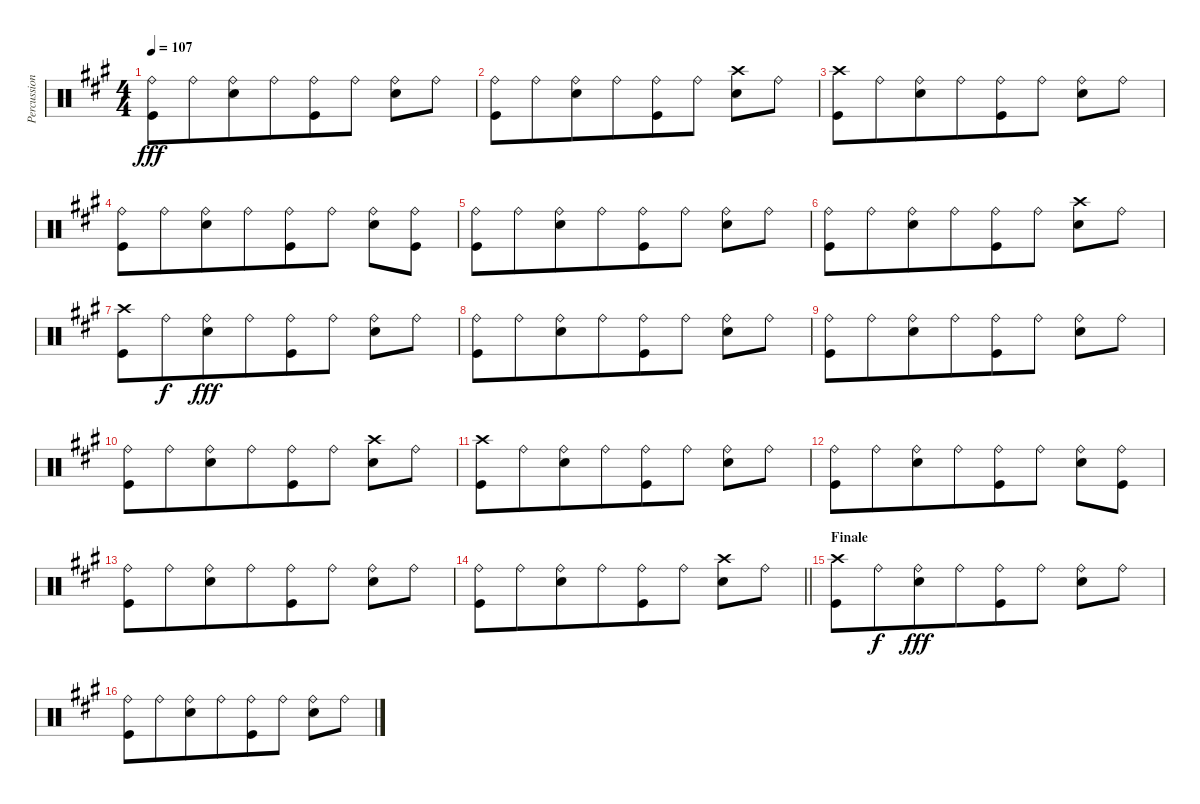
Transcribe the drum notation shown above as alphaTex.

\track ("Percussion" "Percussion") {instrument percussion}
\staff {score}
\articulation defaults
\ts (4 4)
\tempo 107
\clef neutral
\ks a
("Kick (hit)" "Ride (bell)").8{dy fff} "Ride (bell)".8{beam merge} ("Electric Snare (hit)" "Ride (bell)").8{beam merge} "Ride (bell)".8{beam merge} ("Ride (bell)" "Kick (hit)").8{beam merge} "Ride (bell)".8 ("Ride (bell)" "Electric Snare (hit)").8{beam merge} "Ride (bell)".8 |
("Kick (hit)" "Ride (bell)").8 "Ride (bell)".8{beam merge} ("Electric Snare (hit)" "Ride (bell)").8{beam merge} "Ride (bell)".8{beam merge} ("Ride (bell)" "Kick (hit)").8{beam merge} "Ride (bell)".8 ("Crash high (hit)" "Electric Snare (hit)").8{beam merge} "Ride (bell)".8 |
("Kick (hit)" "Crash high (hit)").8 "Ride (bell)".8{beam merge} ("Electric Snare (hit)" "Ride (bell)").8{beam merge} "Ride (bell)".8{beam merge} ("Ride (bell)" "Kick (hit)").8{beam merge} "Ride (bell)".8 ("Ride (bell)" "Electric Snare (hit)").8{beam merge} "Ride (bell)".8 |
("Kick (hit)" "Ride (bell)").8 "Ride (bell)".8{beam merge} ("Electric Snare (hit)" "Ride (bell)").8{beam merge} "Ride (bell)".8{beam merge} ("Ride (bell)" "Kick (hit)").8{beam merge} "Ride (bell)".8 ("Ride (bell)" "Electric Snare (hit)").8{beam merge} ("Ride (bell)" "Kick (hit)").8 |
("Kick (hit)" "Ride (bell)").8 "Ride (bell)".8{beam merge} ("Electric Snare (hit)" "Ride (bell)").8{beam merge} "Ride (bell)".8{beam merge} ("Ride (bell)" "Kick (hit)").8{beam merge} "Ride (bell)".8 ("Ride (bell)" "Electric Snare (hit)").8{beam merge} "Ride (bell)".8 |
("Kick (hit)" "Ride (bell)").8 "Ride (bell)".8{beam merge} ("Electric Snare (hit)" "Ride (bell)").8{beam merge} "Ride (bell)".8{beam merge} ("Ride (bell)" "Kick (hit)").8{beam merge} "Ride (bell)".8 ("Crash high (hit)" "Electric Snare (hit)").8{beam merge} "Ride (bell)".8 |
("Kick (hit)" "Crash high (hit)").8 "Ride (bell)".8{dy f beam merge} ("Electric Snare (hit)" "Ride (bell)").8{dy fff beam merge} "Ride (bell)".8{beam merge} ("Ride (bell)" "Kick (hit)").8{beam merge} "Ride (bell)".8 ("Ride (bell)" "Electric Snare (hit)").8{beam merge} "Ride (bell)".8 |
("Kick (hit)" "Ride (bell)").8 "Ride (bell)".8{beam merge} ("Electric Snare (hit)" "Ride (bell)").8{beam merge} "Ride (bell)".8{beam merge} ("Ride (bell)" "Kick (hit)").8{beam merge} "Ride (bell)".8 ("Ride (bell)" "Electric Snare (hit)").8{beam merge} "Ride (bell)".8 |
("Kick (hit)" "Ride (bell)").8 "Ride (bell)".8{beam merge} ("Electric Snare (hit)" "Ride (bell)").8{beam merge} "Ride (bell)".8{beam merge} ("Ride (bell)" "Kick (hit)").8{beam merge} "Ride (bell)".8 ("Ride (bell)" "Electric Snare (hit)").8{beam merge} "Ride (bell)".8 |
("Kick (hit)" "Ride (bell)").8 "Ride (bell)".8{beam merge} ("Electric Snare (hit)" "Ride (bell)").8{beam merge} "Ride (bell)".8{beam merge} ("Ride (bell)" "Kick (hit)").8{beam merge} "Ride (bell)".8 ("Crash high (hit)" "Electric Snare (hit)").8{beam merge} "Ride (bell)".8 |
("Kick (hit)" "Crash high (hit)").8 "Ride (bell)".8{beam merge} ("Electric Snare (hit)" "Ride (bell)").8{beam merge} "Ride (bell)".8{beam merge} ("Ride (bell)" "Kick (hit)").8{beam merge} "Ride (bell)".8 ("Ride (bell)" "Electric Snare (hit)").8{beam merge} "Ride (bell)".8 |
("Kick (hit)" "Ride (bell)").8 "Ride (bell)".8{beam merge} ("Electric Snare (hit)" "Ride (bell)").8{beam merge} "Ride (bell)".8{beam merge} ("Ride (bell)" "Kick (hit)").8{beam merge} "Ride (bell)".8 ("Ride (bell)" "Electric Snare (hit)").8{beam merge} ("Ride (bell)" "Kick (hit)").8 |
("Kick (hit)" "Ride (bell)").8 "Ride (bell)".8{beam merge} ("Electric Snare (hit)" "Ride (bell)").8{beam merge} "Ride (bell)".8{beam merge} ("Ride (bell)" "Kick (hit)").8{beam merge} "Ride (bell)".8 ("Ride (bell)" "Electric Snare (hit)").8{beam merge} "Ride (bell)".8 |
\barLineRight lightlight
("Kick (hit)" "Ride (bell)").8 "Ride (bell)".8{beam merge} ("Electric Snare (hit)" "Ride (bell)").8{beam merge} "Ride (bell)".8{beam merge} ("Ride (bell)" "Kick (hit)").8{beam merge} "Ride (bell)".8 ("Crash high (hit)" "Electric Snare (hit)").8{beam merge} "Ride (bell)".8 |
\section ("" "Finale")
("Kick (hit)" "Crash high (hit)").8 "Ride (bell)".8{dy f beam merge} ("Electric Snare (hit)" "Ride (bell)").8{dy fff beam merge} "Ride (bell)".8{beam merge} ("Ride (bell)" "Kick (hit)").8{beam merge} "Ride (bell)".8 ("Ride (bell)" "Electric Snare (hit)").8{beam merge} "Ride (bell)".8 |
("Kick (hit)" "Ride (bell)").8 "Ride (bell)".8{beam merge} ("Electric Snare (hit)" "Ride (bell)").8{beam merge} "Ride (bell)".8{beam merge} ("Ride (bell)" "Kick (hit)").8{beam merge} "Ride (bell)".8 ("Ride (bell)" "Electric Snare (hit)").8{beam merge} "Ride (bell)".8
